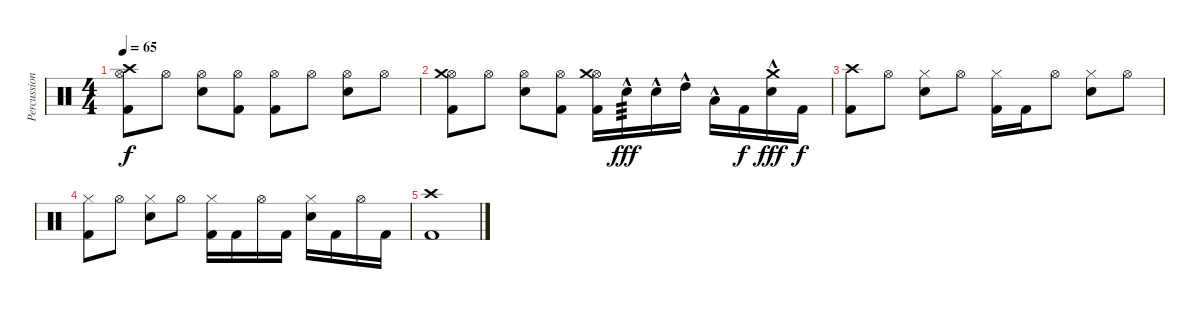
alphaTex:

\track ("Percussion" "Percussion") {instrument percussion}
\staff {score}
\articulation defaults
\ts (4 4)
\tempo 65
\clef neutral
\ks c
("Hi-Hat (open)" "Crash high (hit)" "Kick (hit) 2").8{dy f} "Hi-Hat (open)".8 ("Hi-Hat (open)" "Electric Snare (hit)").8 ("Hi-Hat (open)" "Kick (hit) 2").8 ("Hi-Hat (open)" "Kick (hit) 2").8 "Hi-Hat (open)".8 ("Hi-Hat (open)" "Electric Snare (hit)").8 "Hi-Hat (open)".8 |
("Hi-Hat (open)" "Crash medium (hit)" "Kick (hit) 2").8 "Hi-Hat (open)".8 ("Hi-Hat (open)" "Electric Snare (hit)").8 ("Hi-Hat (open)" "Kick (hit) 2").8 ("Hi-Hat (open)" "Crash medium (hit)" "Kick (hit) 2").16 "Electric Snare (hit)"{hac}.16{tp 3 dy fff} "Electric Snare (hit)"{hac}.16 "High Tom (hit)"{hac}.16 "Low Tom (hit)"{hac}.16 "Kick (hit) 2".16{dy f} ("Crash medium (hit)"{hac} "Electric Snare (hit)"{hac}).16{dy fff} "Kick (hit) 2".16{dy f} |
("Crash high (hit)" "Kick (hit) 2").8 "Hi-Hat (open)".8 ("Hi-Hat (closed)" "Electric Snare (hit)").8 "Hi-Hat (open)".8 ("Hi-Hat (closed)" "Kick (hit) 2").16 "Kick (hit) 2".16 "Hi-Hat (open)".8 ("Hi-Hat (closed)" "Electric Snare (hit)").8 "Hi-Hat (open)".8 |
("Hi-Hat (closed)" "Kick (hit) 2").8 "Hi-Hat (open)".8 ("Hi-Hat (closed)" "Electric Snare (hit)").8 "Hi-Hat (open)".8 ("Hi-Hat (closed)" "Kick (hit) 2").16 "Kick (hit) 2".16 "Hi-Hat (open)".16 "Kick (hit) 2".16 ("Hi-Hat (closed)" "Electric Snare (hit)").16 "Kick (hit) 2".16 "Hi-Hat (open)".16 "Kick (hit) 2".16 |
("Crash high (hit)" "Kick (hit) 2").1
